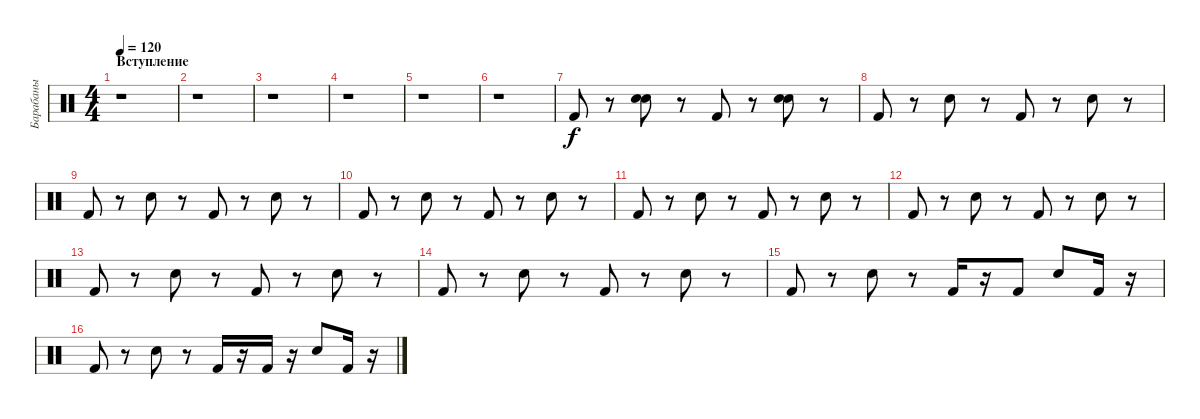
\track ("Барабаны" "Барабаны") {instrument percussion}
\staff {score}
\articulation defaults
\ts (4 4)
\section ("" "Вступление")
\tempo 120
\clef neutral
\ks c
r.1{dy f} |
r.1 |
r.1 |
r.1 |
r.1 |
r.1 |
"Kick (hit) 2".8 r.8 ("Electric Snare (hit)" "Snare (hit) 2").8 r.8 "Kick (hit) 2".8 r.8 ("Electric Snare (hit)" "Snare (hit) 2").8 r.8 |
"Kick (hit) 2".8 r.8 "Electric Snare (hit)".8 r.8 "Kick (hit) 2".8 r.8 "Electric Snare (hit)".8 r.8 |
"Kick (hit) 2".8 r.8 "Electric Snare (hit)".8 r.8 "Kick (hit) 2".8 r.8 "Electric Snare (hit)".8 r.8 |
"Kick (hit) 2".8 r.8 "Electric Snare (hit)".8 r.8 "Kick (hit) 2".8 r.8 "Electric Snare (hit)".8 r.8 |
"Kick (hit) 2".8 r.8 "Electric Snare (hit)".8 r.8 "Kick (hit) 2".8 r.8 "Electric Snare (hit)".8 r.8 |
"Kick (hit) 2".8 r.8 "Electric Snare (hit)".8 r.8 "Kick (hit) 2".8 r.8 "Electric Snare (hit)".8 r.8 |
"Kick (hit) 2".8 r.8 "Electric Snare (hit)".8 r.8 "Kick (hit) 2".8 r.8 "Electric Snare (hit)".8 r.8 |
"Kick (hit) 2".8 r.8 "Electric Snare (hit)".8 r.8 "Kick (hit) 2".8 r.8 "Electric Snare (hit)".8 r.8 |
"Kick (hit) 2".8 r.8 "Electric Snare (hit)".8 r.8 "Kick (hit) 2".16 r.16 "Kick (hit) 2".8 "Electric Snare (hit)".8 "Kick (hit) 2".16 r.16 |
"Kick (hit) 2".8 r.8 "Electric Snare (hit)".8 r.8 "Kick (hit) 2".16 r.16 "Kick (hit) 2".16 r.16 "Electric Snare (hit)".8 "Kick (hit) 2".16 r.16
